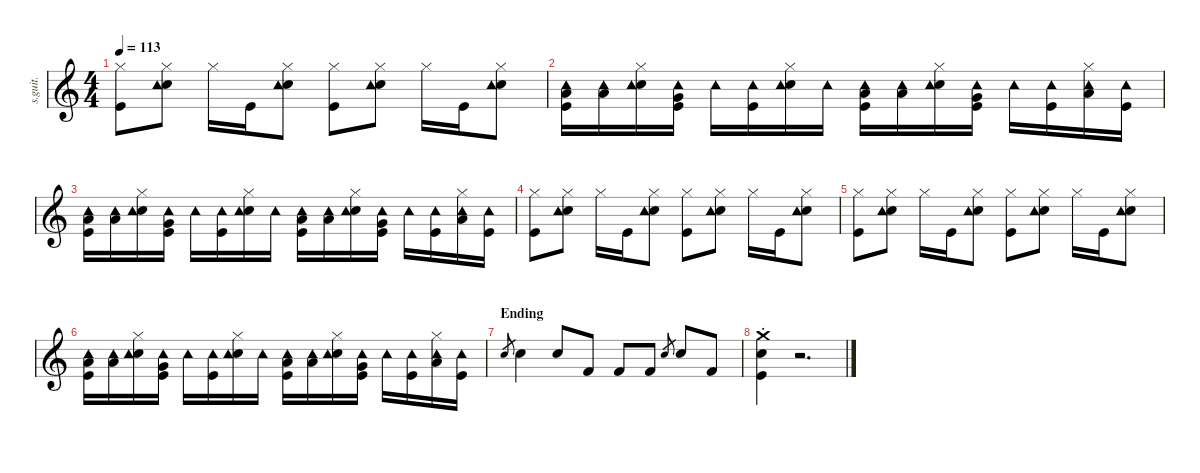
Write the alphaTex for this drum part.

\defaultSystemsLayout 4
\hideDynamics
\bracketExtendMode nobrackets
\track ("" "s.guit.") {instrument percussion}
\staff {score}
\articulation defaults
\ts (4 4)
\tempo 113
\clef g2
\ks c
("Hi-Hat (closed)" "Kick (hit)").8{lyrics (0 "") lyrics (1 "") lyrics (2 "") lyrics (3 "") lyrics (4 "") dy f} ("Hi-Hat (closed)" "Snare (hit) 2" "Tambourine (hit)").8{lyrics (0 "") lyrics (1 "") lyrics (2 "") lyrics (3 "") lyrics (4 "")} "Hi-Hat (closed)".16{lyrics (0 "") lyrics (1 "") lyrics (2 "") lyrics (3 "") lyrics (4 "")} "Kick (hit)".16{lyrics (0 "") lyrics (1 "") lyrics (2 "") lyrics (3 "") lyrics (4 "")} ("Hi-Hat (closed)" "Snare (hit) 2" "Tambourine (hit)").8{lyrics (0 "") lyrics (1 "") lyrics (2 "") lyrics (3 "") lyrics (4 "")} ("Hi-Hat (closed)" "Kick (hit)").8{lyrics (0 "") lyrics (1 "") lyrics (2 "") lyrics (3 "") lyrics (4 "")} ("Hi-Hat (closed)" "Snare (hit) 2" "Tambourine (hit)").8{lyrics (0 "") lyrics (1 "") lyrics (2 "") lyrics (3 "") lyrics (4 "")} "Hi-Hat (closed)".16{lyrics (0 "") lyrics (1 "") lyrics (2 "") lyrics (3 "") lyrics (4 "")} "Kick (hit)".16{lyrics (0 "") lyrics (1 "") lyrics (2 "") lyrics (3 "") lyrics (4 "")} ("Hi-Hat (closed)" "Snare (hit) 2" "Tambourine (hit)").8{lyrics (0 "") lyrics (1 "") lyrics (2 "") lyrics (3 "") lyrics (4 "")} |
("Tambourine (hit)" "Low Tom (hit)" "Kick (hit)").16{lyrics (0 "") lyrics (1 "") lyrics (2 "") lyrics (3 "") lyrics (4 "")} ("Tambourine (hit)" "Low Floor Tom (hit)").16{lyrics (0 "") lyrics (1 "") lyrics (2 "") lyrics (3 "") lyrics (4 "")} ("Hi-Hat (closed)" "Snare (hit) 2" "Tambourine (hit)").16{lyrics (0 "") lyrics (1 "") lyrics (2 "") lyrics (3 "") lyrics (4 "")} ("Tambourine (hit)" "Very Low Tom (hit)" "Kick (hit)").16{lyrics (0 "") lyrics (1 "") lyrics (2 "") lyrics (3 "") lyrics (4 "")} "Tambourine (hit)".16{lyrics (0 "") lyrics (1 "") lyrics (2 "") lyrics (3 "") lyrics (4 "")} ("Tambourine (hit)" "Kick (hit)").16{lyrics (0 "") lyrics (1 "") lyrics (2 "") lyrics (3 "") lyrics (4 "")} ("Hi-Hat (closed)" "Snare (hit) 2" "Tambourine (hit)").16{lyrics (0 "") lyrics (1 "") lyrics (2 "") lyrics (3 "") lyrics (4 "")} "Tambourine (hit)".16{lyrics (0 "") lyrics (1 "") lyrics (2 "") lyrics (3 "") lyrics (4 "")} ("Tambourine (hit)" "Low Tom (hit)" "Kick (hit)").16{lyrics (0 "") lyrics (1 "") lyrics (2 "") lyrics (3 "") lyrics (4 "")} ("Tambourine (hit)" "Low Floor Tom (hit)").16{lyrics (0 "") lyrics (1 "") lyrics (2 "") lyrics (3 "") lyrics (4 "")} ("Hi-Hat (closed)" "Snare (hit) 2" "Tambourine (hit)").16{lyrics (0 "") lyrics (1 "") lyrics (2 "") lyrics (3 "") lyrics (4 "")} ("Tambourine (hit)" "Very Low Tom (hit)" "Kick (hit)").16{lyrics (0 "") lyrics (1 "") lyrics (2 "") lyrics (3 "") lyrics (4 "")} "Tambourine (hit)".16{lyrics (0 "") lyrics (1 "") lyrics (2 "") lyrics (3 "") lyrics (4 "")} ("Tambourine (hit)" "Kick (hit)").16{lyrics (0 "") lyrics (1 "") lyrics (2 "") lyrics (3 "") lyrics (4 "")} ("Hi-Hat (closed)" "Tambourine (hit)" "Low Tom (hit)").16{lyrics (0 "") lyrics (1 "") lyrics (2 "") lyrics (3 "") lyrics (4 "")} ("Tambourine (hit)" "Kick (hit)").16{lyrics (0 "") lyrics (1 "") lyrics (2 "") lyrics (3 "") lyrics (4 "")} |
("Tambourine (hit)" "Low Tom (hit)" "Kick (hit)").16{lyrics (0 "") lyrics (1 "") lyrics (2 "") lyrics (3 "") lyrics (4 "")} ("Tambourine (hit)" "Low Floor Tom (hit)").16{lyrics (0 "") lyrics (1 "") lyrics (2 "") lyrics (3 "") lyrics (4 "")} ("Hi-Hat (closed)" "Snare (hit) 2" "Tambourine (hit)").16{lyrics (0 "") lyrics (1 "") lyrics (2 "") lyrics (3 "") lyrics (4 "")} ("Tambourine (hit)" "Very Low Tom (hit)" "Kick (hit)").16{lyrics (0 "") lyrics (1 "") lyrics (2 "") lyrics (3 "") lyrics (4 "")} "Tambourine (hit)".16{lyrics (0 "") lyrics (1 "") lyrics (2 "") lyrics (3 "") lyrics (4 "")} ("Tambourine (hit)" "Kick (hit)").16{lyrics (0 "") lyrics (1 "") lyrics (2 "") lyrics (3 "") lyrics (4 "")} ("Hi-Hat (closed)" "Snare (hit) 2" "Tambourine (hit)").16{lyrics (0 "") lyrics (1 "") lyrics (2 "") lyrics (3 "") lyrics (4 "")} "Tambourine (hit)".16{lyrics (0 "") lyrics (1 "") lyrics (2 "") lyrics (3 "") lyrics (4 "")} ("Tambourine (hit)" "Low Tom (hit)" "Kick (hit)").16{lyrics (0 "") lyrics (1 "") lyrics (2 "") lyrics (3 "") lyrics (4 "")} ("Tambourine (hit)" "Low Floor Tom (hit)").16{lyrics (0 "") lyrics (1 "") lyrics (2 "") lyrics (3 "") lyrics (4 "")} ("Hi-Hat (closed)" "Snare (hit) 2" "Tambourine (hit)").16{lyrics (0 "") lyrics (1 "") lyrics (2 "") lyrics (3 "") lyrics (4 "")} ("Tambourine (hit)" "Very Low Tom (hit)" "Kick (hit)").16{lyrics (0 "") lyrics (1 "") lyrics (2 "") lyrics (3 "") lyrics (4 "")} "Tambourine (hit)".16{lyrics (0 "") lyrics (1 "") lyrics (2 "") lyrics (3 "") lyrics (4 "")} ("Tambourine (hit)" "Kick (hit)").16{lyrics (0 "") lyrics (1 "") lyrics (2 "") lyrics (3 "") lyrics (4 "")} ("Hi-Hat (closed)" "Tambourine (hit)" "Low Tom (hit)").16{lyrics (0 "") lyrics (1 "") lyrics (2 "") lyrics (3 "") lyrics (4 "")} ("Tambourine (hit)" "Kick (hit)").16{lyrics (0 "") lyrics (1 "") lyrics (2 "") lyrics (3 "") lyrics (4 "")} |
("Hi-Hat (closed)" "Kick (hit)").8{lyrics (0 "") lyrics (1 "") lyrics (2 "") lyrics (3 "") lyrics (4 "")} ("Hi-Hat (closed)" "Snare (hit) 2" "Tambourine (hit)").8{lyrics (0 "") lyrics (1 "") lyrics (2 "") lyrics (3 "") lyrics (4 "")} "Hi-Hat (closed)".16{lyrics (0 "") lyrics (1 "") lyrics (2 "") lyrics (3 "") lyrics (4 "")} "Kick (hit)".16{lyrics (0 "") lyrics (1 "") lyrics (2 "") lyrics (3 "") lyrics (4 "")} ("Hi-Hat (closed)" "Snare (hit) 2" "Tambourine (hit)").8{lyrics (0 "") lyrics (1 "") lyrics (2 "") lyrics (3 "") lyrics (4 "")} ("Hi-Hat (closed)" "Kick (hit)").8{lyrics (0 "") lyrics (1 "") lyrics (2 "") lyrics (3 "") lyrics (4 "")} ("Hi-Hat (closed)" "Snare (hit) 2" "Tambourine (hit)").8{lyrics (0 "") lyrics (1 "") lyrics (2 "") lyrics (3 "") lyrics (4 "")} "Hi-Hat (closed)".16{lyrics (0 "") lyrics (1 "") lyrics (2 "") lyrics (3 "") lyrics (4 "")} "Kick (hit)".16{lyrics (0 "") lyrics (1 "") lyrics (2 "") lyrics (3 "") lyrics (4 "")} ("Hi-Hat (closed)" "Snare (hit) 2" "Tambourine (hit)").8{lyrics (0 "") lyrics (1 "") lyrics (2 "") lyrics (3 "") lyrics (4 "")} |
("Hi-Hat (closed)" "Kick (hit)").8{lyrics (0 "") lyrics (1 "") lyrics (2 "") lyrics (3 "") lyrics (4 "")} ("Hi-Hat (closed)" "Snare (hit) 2" "Tambourine (hit)").8{lyrics (0 "") lyrics (1 "") lyrics (2 "") lyrics (3 "") lyrics (4 "")} "Hi-Hat (closed)".16{lyrics (0 "") lyrics (1 "") lyrics (2 "") lyrics (3 "") lyrics (4 "")} "Kick (hit)".16{lyrics (0 "") lyrics (1 "") lyrics (2 "") lyrics (3 "") lyrics (4 "")} ("Hi-Hat (closed)" "Snare (hit) 2" "Tambourine (hit)").8{lyrics (0 "") lyrics (1 "") lyrics (2 "") lyrics (3 "") lyrics (4 "")} ("Hi-Hat (closed)" "Kick (hit)").8{lyrics (0 "") lyrics (1 "") lyrics (2 "") lyrics (3 "") lyrics (4 "")} ("Hi-Hat (closed)" "Snare (hit) 2" "Tambourine (hit)").8{lyrics (0 "") lyrics (1 "") lyrics (2 "") lyrics (3 "") lyrics (4 "")} "Hi-Hat (closed)".16{lyrics (0 "") lyrics (1 "") lyrics (2 "") lyrics (3 "") lyrics (4 "")} "Kick (hit)".16{lyrics (0 "") lyrics (1 "") lyrics (2 "") lyrics (3 "") lyrics (4 "")} ("Hi-Hat (closed)" "Snare (hit) 2" "Tambourine (hit)").8{lyrics (0 "") lyrics (1 "") lyrics (2 "") lyrics (3 "") lyrics (4 "")} |
("Tambourine (hit)" "Low Tom (hit)" "Kick (hit)").16{lyrics (0 "") lyrics (1 "") lyrics (2 "") lyrics (3 "") lyrics (4 "")} ("Tambourine (hit)" "Low Floor Tom (hit)").16{lyrics (0 "") lyrics (1 "") lyrics (2 "") lyrics (3 "") lyrics (4 "")} ("Hi-Hat (closed)" "Snare (hit) 2" "Tambourine (hit)").16{lyrics (0 "") lyrics (1 "") lyrics (2 "") lyrics (3 "") lyrics (4 "")} ("Tambourine (hit)" "Very Low Tom (hit)" "Kick (hit)").16{lyrics (0 "") lyrics (1 "") lyrics (2 "") lyrics (3 "") lyrics (4 "")} "Tambourine (hit)".16{lyrics (0 "") lyrics (1 "") lyrics (2 "") lyrics (3 "") lyrics (4 "")} ("Tambourine (hit)" "Kick (hit)").16{lyrics (0 "") lyrics (1 "") lyrics (2 "") lyrics (3 "") lyrics (4 "")} ("Hi-Hat (closed)" "Snare (hit) 2" "Tambourine (hit)").16{lyrics (0 "") lyrics (1 "") lyrics (2 "") lyrics (3 "") lyrics (4 "")} "Tambourine (hit)".16{lyrics (0 "") lyrics (1 "") lyrics (2 "") lyrics (3 "") lyrics (4 "")} ("Tambourine (hit)" "Low Tom (hit)" "Kick (hit)").16{lyrics (0 "") lyrics (1 "") lyrics (2 "") lyrics (3 "") lyrics (4 "")} ("Tambourine (hit)" "Low Floor Tom (hit)").16{lyrics (0 "") lyrics (1 "") lyrics (2 "") lyrics (3 "") lyrics (4 "")} ("Hi-Hat (closed)" "Snare (hit) 2" "Tambourine (hit)").16{lyrics (0 "") lyrics (1 "") lyrics (2 "") lyrics (3 "") lyrics (4 "")} ("Tambourine (hit)" "Very Low Tom (hit)" "Kick (hit)").16{lyrics (0 "") lyrics (1 "") lyrics (2 "") lyrics (3 "") lyrics (4 "")} "Tambourine (hit)".16{lyrics (0 "") lyrics (1 "") lyrics (2 "") lyrics (3 "") lyrics (4 "")} ("Tambourine (hit)" "Kick (hit)").16{lyrics (0 "") lyrics (1 "") lyrics (2 "") lyrics (3 "") lyrics (4 "")} ("Hi-Hat (closed)" "Tambourine (hit)" "Low Tom (hit)").16{lyrics (0 "") lyrics (1 "") lyrics (2 "") lyrics (3 "") lyrics (4 "")} ("Tambourine (hit)" "Kick (hit)").16{lyrics (0 "") lyrics (1 "") lyrics (2 "") lyrics (3 "") lyrics (4 "")} |
\section ("" "Ending")
"Snare (hit) 2".8{lyrics (0 "") lyrics (1 "") lyrics (2 "") lyrics (3 "") lyrics (4 "") gr} "Snare (hit) 2".4{lyrics (0 "") lyrics (1 "") lyrics (2 "") lyrics (3 "") lyrics (4 "")} "Snare (hit) 2".8{lyrics (0 "") lyrics (1 "") lyrics (2 "") lyrics (3 "") lyrics (4 "")} "Kick (hit) 2".8{lyrics (0 "") lyrics (1 "") lyrics (2 "") lyrics (3 "") lyrics (4 "")} "Kick (hit) 2".8{lyrics (0 "") lyrics (1 "") lyrics (2 "") lyrics (3 "") lyrics (4 "")} "Kick (hit) 2".8{lyrics (0 "") lyrics (1 "") lyrics (2 "") lyrics (3 "") lyrics (4 "")} "Snare (hit) 2".8{lyrics (0 "") lyrics (1 "") lyrics (2 "") lyrics (3 "") lyrics (4 "") gr} "Snare (hit) 2".8{lyrics (0 "") lyrics (1 "") lyrics (2 "") lyrics (3 "") lyrics (4 "")} "Kick (hit) 2".8{lyrics (0 "") lyrics (1 "") lyrics (2 "") lyrics (3 "") lyrics (4 "")} |
("Crash medium (choke)" "Snare (hit) 2" "Kick (hit)").4{lyrics (0 "") lyrics (1 "") lyrics (2 "") lyrics (3 "") lyrics (4 "")} r.2{d}
